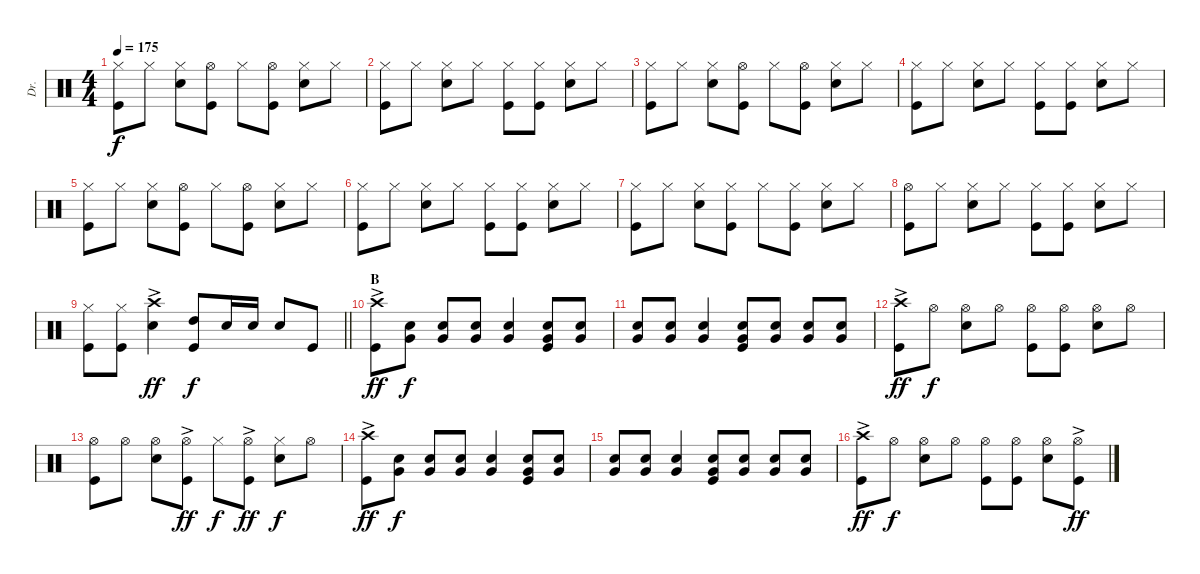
\track ("Dr." "Dr.") {instrument percussion}
\staff {score}
\articulation defaults
\ts (4 4)
\tempo 175
\clef neutral
\ks c
("Hi-Hat (closed)" "Kick (hit)").8{dy f} "Hi-Hat (closed)".8 ("Hi-Hat (closed)" "Snare (hit) 2").8 ("Hi-Hat (open)" "Kick (hit)").8 "Hi-Hat (closed)".8 ("Hi-Hat (open)" "Kick (hit)").8 ("Hi-Hat (closed)" "Snare (hit) 2").8 "Hi-Hat (closed)".8 |
("Hi-Hat (closed)" "Kick (hit)").8 "Hi-Hat (closed)".8 ("Hi-Hat (closed)" "Snare (hit) 2").8 "Hi-Hat (closed)".8 ("Hi-Hat (closed)" "Kick (hit)").8 ("Hi-Hat (closed)" "Kick (hit)").8 ("Hi-Hat (closed)" "Snare (hit) 2").8 "Hi-Hat (closed)".8 |
("Hi-Hat (closed)" "Kick (hit)").8 "Hi-Hat (closed)".8 ("Hi-Hat (closed)" "Snare (hit) 2").8 ("Hi-Hat (open)" "Kick (hit)").8 "Hi-Hat (closed)".8 ("Hi-Hat (open)" "Kick (hit)").8 ("Hi-Hat (closed)" "Snare (hit) 2").8 "Hi-Hat (closed)".8 |
("Hi-Hat (closed)" "Kick (hit)").8 "Hi-Hat (closed)".8 ("Hi-Hat (closed)" "Snare (hit) 2").8 "Hi-Hat (closed)".8 ("Hi-Hat (closed)" "Kick (hit)").8 ("Hi-Hat (closed)" "Kick (hit)").8 ("Hi-Hat (closed)" "Snare (hit) 2").8 "Hi-Hat (closed)".8 |
("Hi-Hat (closed)" "Kick (hit)").8 "Hi-Hat (closed)".8 ("Hi-Hat (closed)" "Snare (hit) 2").8 ("Hi-Hat (open)" "Kick (hit)").8 "Hi-Hat (closed)".8 ("Hi-Hat (open)" "Kick (hit)").8 ("Hi-Hat (closed)" "Snare (hit) 2").8 "Hi-Hat (closed)".8 |
("Hi-Hat (closed)" "Kick (hit)").8 "Hi-Hat (closed)".8 ("Hi-Hat (closed)" "Snare (hit) 2").8 "Hi-Hat (closed)".8 ("Hi-Hat (closed)" "Kick (hit)").8 ("Hi-Hat (closed)" "Kick (hit)").8 ("Hi-Hat (closed)" "Snare (hit) 2").8 "Hi-Hat (closed)".8 |
("Hi-Hat (closed)" "Kick (hit)").8 "Hi-Hat (closed)".8 ("Hi-Hat (closed)" "Snare (hit) 2").8 ("Hi-Hat (closed)" "Kick (hit)").8 "Hi-Hat (closed)".8 ("Hi-Hat (closed)" "Kick (hit)").8 ("Hi-Hat (closed)" "Snare (hit) 2").8 "Hi-Hat (closed)".8 |
("Hi-Hat (open)" "Kick (hit)").8 "Hi-Hat (closed)".8 ("Hi-Hat (closed)" "Snare (hit) 2").8 "Hi-Hat (closed)".8 ("Hi-Hat (closed)" "Kick (hit)").8 ("Hi-Hat (closed)" "Kick (hit)").8 ("Hi-Hat (closed)" "Snare (hit) 2").8 "Hi-Hat (closed)".8 |
\barLineRight lightlight
("Hi-Hat (closed)" "Kick (hit)").8 ("Hi-Hat (closed)" "Kick (hit)").8 ("Crash high (hit)"{ac} "Snare (hit) 2"{ac}).4{dy ff} ("High Tom (hit)" "Kick (hit)").8{dy f} "Snare (hit) 2".16 "Snare (hit) 2".16 "Snare (hit) 2".8 "Kick (hit)".8 |
\section ("" "B")
("Crash high (hit)"{ac} "Kick (hit)"{ac}).8{dy ff} ("Very Low Tom (hit)" "Snare (hit) 2").8{dy f} ("Very Low Tom (hit)" "Snare (hit) 2").8 ("Very Low Tom (hit)" "Snare (hit) 2").8 ("Very Low Tom (hit)" "Snare (hit) 2").4 ("Very Low Tom (hit)" "Snare (hit) 2" "Kick (hit)").8 ("Very Low Tom (hit)" "Snare (hit) 2").8 |
("Very Low Tom (hit)" "Snare (hit) 2").8 ("Very Low Tom (hit)" "Snare (hit) 2").8 ("Very Low Tom (hit)" "Snare (hit) 2").4 ("Very Low Tom (hit)" "Snare (hit) 2" "Kick (hit)").8 ("Very Low Tom (hit)" "Snare (hit) 2").8 ("Very Low Tom (hit)" "Snare (hit) 2").8 ("Very Low Tom (hit)" "Snare (hit) 2").8 |
("Crash high (hit)"{ac} "Kick (hit)"{ac}).8{dy ff} "Hi-Hat (open)".8{dy f} ("Hi-Hat (open)" "Snare (hit) 2").8 "Hi-Hat (open)".8 ("Hi-Hat (open)" "Kick (hit)").8 ("Hi-Hat (open)" "Kick (hit)").8 ("Hi-Hat (open)" "Snare (hit) 2").8 "Hi-Hat (open)".8 |
("Hi-Hat (open)" "Kick (hit)").8 "Hi-Hat (open)".8 ("Hi-Hat (open)" "Snare (hit) 2").8 ("Hi-Hat (open)"{ac} "Kick (hit)"{ac}).8{dy ff} "Hi-Hat (closed)".8{dy f} ("Hi-Hat (open)"{ac} "Kick (hit)"{ac}).8{dy ff} ("Hi-Hat (closed)" "Snare (hit) 2").8{dy f} "Hi-Hat (open)".8 |
("Crash high (hit)"{ac} "Kick (hit)"{ac}).8{dy ff} ("Very Low Tom (hit)" "Snare (hit) 2").8{dy f} ("Very Low Tom (hit)" "Snare (hit) 2").8 ("Very Low Tom (hit)" "Snare (hit) 2").8 ("Very Low Tom (hit)" "Snare (hit) 2").4 ("Very Low Tom (hit)" "Snare (hit) 2" "Kick (hit)").8 ("Very Low Tom (hit)" "Snare (hit) 2").8 |
("Very Low Tom (hit)" "Snare (hit) 2").8 ("Very Low Tom (hit)" "Snare (hit) 2").8 ("Very Low Tom (hit)" "Snare (hit) 2").4 ("Very Low Tom (hit)" "Snare (hit) 2" "Kick (hit)").8 ("Very Low Tom (hit)" "Snare (hit) 2").8 ("Very Low Tom (hit)" "Snare (hit) 2").8 ("Very Low Tom (hit)" "Snare (hit) 2").8 |
("Crash high (hit)"{ac} "Kick (hit)"{ac}).8{dy ff} "Hi-Hat (open)".8{dy f} ("Hi-Hat (open)" "Snare (hit) 2").8 "Hi-Hat (open)".8 ("Hi-Hat (open)" "Kick (hit)").8 ("Hi-Hat (open)" "Kick (hit)").8 ("Hi-Hat (open)" "Snare (hit) 2").8 ("Hi-Hat (open)"{ac} "Kick (hit)").8{dy ff}
